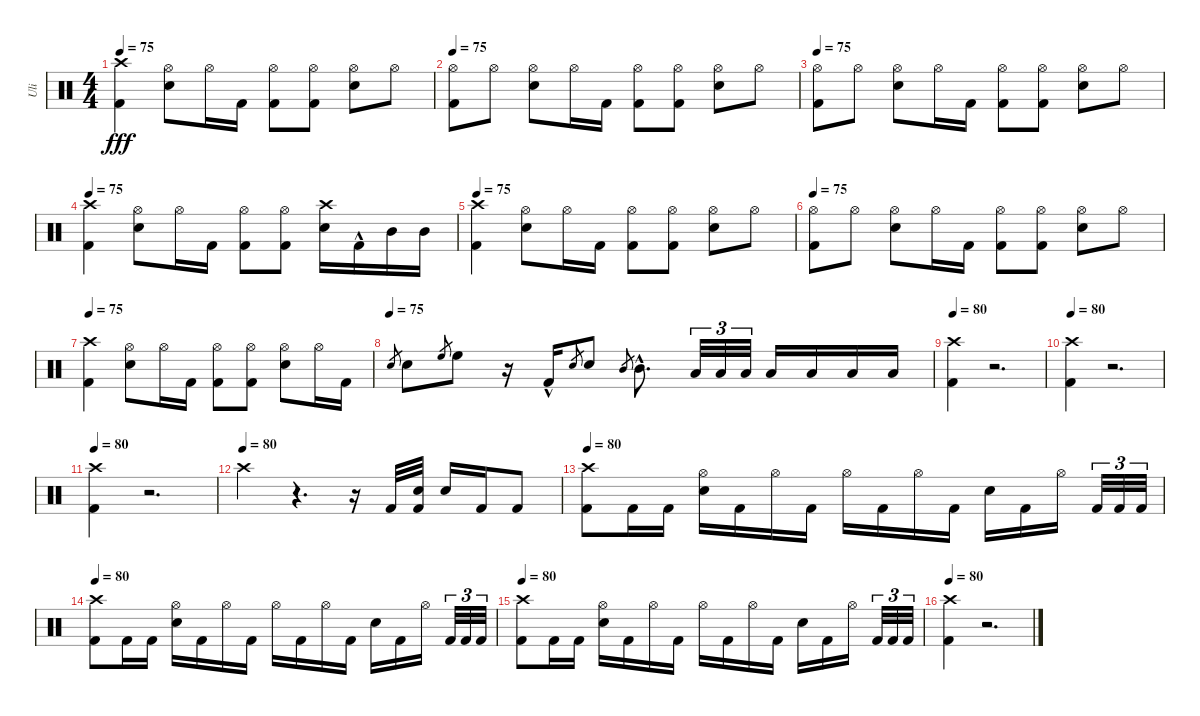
\track ("Uli" "Uli") {instrument percussion}
\staff {score}
\articulation defaults
\ts (4 4)
\tempo 75
\clef neutral
\ks c
("Kick (hit) 2" "Crash high (hit)").4{dy fff} ("Electric Snare (hit)" "Hi-Hat (open)").8 "Hi-Hat (open)".16 "Kick (hit) 2".16 ("Kick (hit) 2" "Hi-Hat (open)").8 ("Kick (hit) 2" "Hi-Hat (open)").8 ("Electric Snare (hit)" "Hi-Hat (open)").8 "Hi-Hat (open)".8 |
\tempo 75
("Kick (hit) 2" "Hi-Hat (open)").8 "Hi-Hat (open)".8 ("Electric Snare (hit)" "Hi-Hat (open)").8 "Hi-Hat (open)".16 "Kick (hit) 2".16 ("Kick (hit) 2" "Hi-Hat (open)").8 ("Kick (hit) 2" "Hi-Hat (open)").8 ("Electric Snare (hit)" "Hi-Hat (open)").8 "Hi-Hat (open)".8 |
\tempo 75
("Kick (hit) 2" "Hi-Hat (open)").8 "Hi-Hat (open)".8 ("Electric Snare (hit)" "Hi-Hat (open)").8 "Hi-Hat (open)".16 "Kick (hit) 2".16 ("Kick (hit) 2" "Hi-Hat (open)").8 ("Kick (hit) 2" "Hi-Hat (open)").8 ("Electric Snare (hit)" "Hi-Hat (open)").8 "Hi-Hat (open)".8 |
\tempo 75
("Kick (hit) 2" "Crash high (hit)").4 ("Electric Snare (hit)" "Hi-Hat (open)").8 "Hi-Hat (open)".16 "Kick (hit) 2".16 ("Kick (hit) 2" "Hi-Hat (open)").8 ("Kick (hit) 2" "Hi-Hat (open)").8 ("Crash high (hit)" "Electric Snare (hit)").16 "Kick (hit) 2"{hac}.16 "Mid Tom (hit)".16 "Mid Tom (hit)".16 |
\tempo 75
("Kick (hit) 2" "Crash high (hit)").4 ("Electric Snare (hit)" "Hi-Hat (open)").8 "Hi-Hat (open)".16 "Kick (hit) 2".16 ("Kick (hit) 2" "Hi-Hat (open)").8 ("Kick (hit) 2" "Hi-Hat (open)").8 ("Electric Snare (hit)" "Hi-Hat (open)").8 "Hi-Hat (open)".8 |
\tempo 75
("Kick (hit) 2" "Hi-Hat (open)").8 "Hi-Hat (open)".8 ("Electric Snare (hit)" "Hi-Hat (open)").8 "Hi-Hat (open)".16 "Kick (hit) 2".16 ("Kick (hit) 2" "Hi-Hat (open)").8 ("Kick (hit) 2" "Hi-Hat (open)").8 ("Electric Snare (hit)" "Hi-Hat (open)").8 "Hi-Hat (open)".8 |
\tempo 75
("Kick (hit) 2" "Crash high (hit)").4 ("Electric Snare (hit)" "Hi-Hat (open)").8 "Hi-Hat (open)".16 "Kick (hit) 2".16 ("Kick (hit) 2" "Hi-Hat (open)").8 ("Kick (hit) 2" "Hi-Hat (open)").8 ("Electric Snare (hit)" "Hi-Hat (open)").8 "Hi-Hat (open)".16 "Kick (hit) 2".16 |
\tempo (75)
"Electric Snare (hit)".8{gr} "Electric Snare (hit)".8 "High Floor Tom (hit)".8{gr} "High Floor Tom (hit)".8 r.16 "Kick (hit) 2"{hac}.16 "Electric Snare (hit)".8{gr} "Electric Snare (hit)".8 "Mid Tom (hit)".8{gr} "Mid Tom (hit)"{hac}.8{d} "Low Tom (hit)".32{tu (3 2)} "Low Tom (hit)".32{tu (3 2)} "Low Floor Tom (hit)".32{tu (3 2)} "Low Tom (hit)".16 "Low Tom (hit)".16 "Low Floor Tom (hit)".16 "Low Floor Tom (hit)".16 |
\tempo 80
("Kick (hit) 2" "Crash high (hit)").4 r.2{d} |
\tempo 80
("Kick (hit) 2" "Crash high (hit)").4 r.2{d} |
\tempo 80
("Kick (hit) 2" "Crash high (hit)").4 r.2{d} |
\tempo (80)
"Crash high (hit)".4 r.4{d} r.16 "Kick (hit) 2".32 ("Kick (hit) 2" "Electric Snare (hit)").32 "Electric Snare (hit)".16 "Kick (hit) 2".16 "Kick (hit) 2".8 |
\tempo 80
("Crash high (hit)" "Kick (hit) 2").8 "Kick (hit) 2".16 "Kick (hit) 2".16 ("Hi-Hat (open)" "Electric Snare (hit)").16 "Kick (hit) 2".16 "Hi-Hat (open)".16 "Kick (hit) 2".16 "Hi-Hat (open)".16 "Kick (hit) 2".16 "Hi-Hat (open)".16 "Kick (hit) 2".16 "Electric Snare (hit)".16 "Kick (hit) 2".16 "Hi-Hat (open)".16 "Kick (hit) 2".32{tu (3 2)} "Kick (hit) 2".32{tu (3 2)} "Kick (hit) 2".32{tu (3 2)} |
\tempo 80
("Crash high (hit)" "Kick (hit) 2").8 "Kick (hit) 2".16 "Kick (hit) 2".16 ("Hi-Hat (open)" "Electric Snare (hit)").16 "Kick (hit) 2".16 "Hi-Hat (open)".16 "Kick (hit) 2".16 "Hi-Hat (open)".16 "Kick (hit) 2".16 "Hi-Hat (open)".16 "Kick (hit) 2".16 "Electric Snare (hit)".16 "Kick (hit) 2".16 "Hi-Hat (open)".16 "Kick (hit) 2".32{tu (3 2)} "Kick (hit) 2".32{tu (3 2)} "Kick (hit) 2".32{tu (3 2)} |
\tempo 80
("Crash high (hit)" "Kick (hit) 2").8 "Kick (hit) 2".16 "Kick (hit) 2".16 ("Hi-Hat (open)" "Electric Snare (hit)").16 "Kick (hit) 2".16 "Hi-Hat (open)".16 "Kick (hit) 2".16 "Hi-Hat (open)".16 "Kick (hit) 2".16 "Hi-Hat (open)".16 "Kick (hit) 2".16 "Electric Snare (hit)".16 "Kick (hit) 2".16 "Hi-Hat (open)".16 "Kick (hit) 2".32{tu (3 2)} "Kick (hit) 2".32{tu (3 2)} "Kick (hit) 2".32{tu (3 2)} |
\tempo 80
("Kick (hit) 2" "Crash high (hit)").4 r.2{d}
